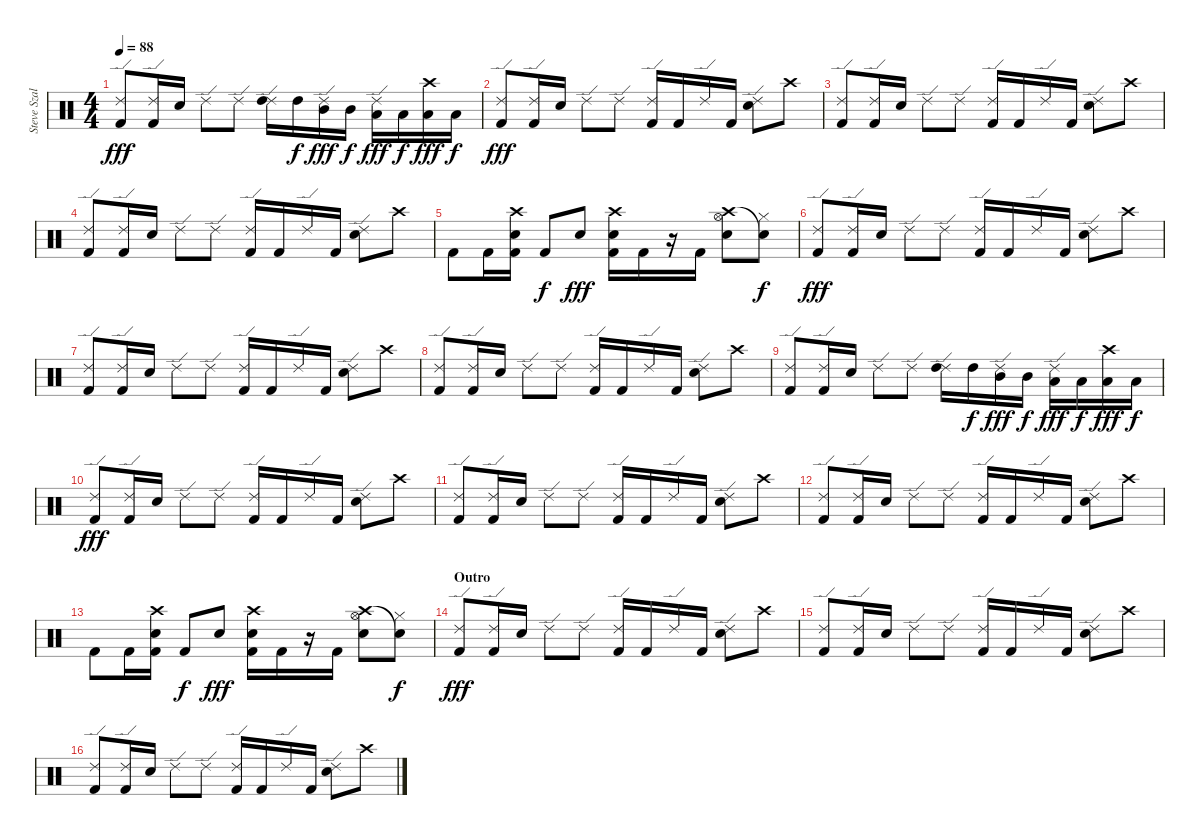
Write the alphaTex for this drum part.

\track ("Steve Szalay " "Steve Szal") {instrument percussion}
\staff {score}
\articulation defaults
\ts (4 4)
\tempo 88
\clef neutral
\ks c
("Ride (edge) 2" "Kick (hit) 2").8{dy fff} ("Ride (edge) 2" "Kick (hit) 2").16 "Electric Snare (hit)".16 "Ride (edge) 2".8 "Ride (edge) 2".8 ("Ride (edge) 2" "High Tom (hit)").16 "High Tom (hit)".16{dy f} ("Ride (edge) 2" "Mid Tom (hit)").16{dy fff} "Mid Tom (hit)".16{dy f} ("Ride (edge) 2" "Low Floor Tom (hit)").16{dy fff} "Low Floor Tom (hit)".16{dy f} ("Crash high (hit)" "Low Floor Tom (hit)").16{dy fff} "Low Floor Tom (hit)".16{dy f} |
("Ride (edge) 2" "Kick (hit) 2").8{dy fff} ("Ride (edge) 2" "Kick (hit) 2").16 "Electric Snare (hit)".16 "Ride (edge) 2".8 "Ride (edge) 2".8 ("Ride (edge) 2" "Kick (hit) 2").16 "Kick (hit) 2".16 "Ride (edge) 2".16 "Kick (hit) 2".16 ("Ride (edge) 2" "Electric Snare (hit)").8 "Crash high (hit)".8 |
("Ride (edge) 2" "Kick (hit) 2").8 ("Ride (edge) 2" "Kick (hit) 2").16 "Electric Snare (hit)".16 "Ride (edge) 2".8 "Ride (edge) 2".8 ("Ride (edge) 2" "Kick (hit) 2").16 "Kick (hit) 2".16 "Ride (edge) 2".16 "Kick (hit) 2".16 ("Ride (edge) 2" "Electric Snare (hit)").8 "Crash high (hit)".8 |
("Ride (edge) 2" "Kick (hit) 2").8 ("Ride (edge) 2" "Kick (hit) 2").16 "Electric Snare (hit)".16 "Ride (edge) 2".8 "Ride (edge) 2".8 ("Ride (edge) 2" "Kick (hit) 2").16 "Kick (hit) 2".16 "Ride (edge) 2".16 "Kick (hit) 2".16 ("Ride (edge) 2" "Electric Snare (hit)").8 "Crash high (hit)".8 |
"Kick (hit) 2".8 "Kick (hit) 2".16 ("Crash high (hit)" "Electric Snare (hit)" "Kick (hit) 2").16 "Kick (hit) 2".8{dy f} "Electric Snare (hit)".8{dy fff} ("Crash high (hit)" "Electric Snare (hit)" "Kick (hit) 2").16 "Kick (hit) 2".16 r.16 "Kick (hit) 2".16 ("Crash high (hit)" "Hi-Hat (open)" "Electric Snare (hit)").8 ("Snare (hit)"{t} "Hi-Hat (closed)").8{dy f} |
("Ride (edge) 2" "Kick (hit) 2").8{dy fff} ("Ride (edge) 2" "Kick (hit) 2").16 "Electric Snare (hit)".16 "Ride (edge) 2".8 "Ride (edge) 2".8 ("Ride (edge) 2" "Kick (hit) 2").16 "Kick (hit) 2".16 "Ride (edge) 2".16 "Kick (hit) 2".16 ("Ride (edge) 2" "Electric Snare (hit)").8 "Crash high (hit)".8 |
("Ride (edge) 2" "Kick (hit) 2").8 ("Ride (edge) 2" "Kick (hit) 2").16 "Electric Snare (hit)".16 "Ride (edge) 2".8 "Ride (edge) 2".8 ("Ride (edge) 2" "Kick (hit) 2").16 "Kick (hit) 2".16 "Ride (edge) 2".16 "Kick (hit) 2".16 ("Ride (edge) 2" "Electric Snare (hit)").8 "Crash high (hit)".8 |
("Ride (edge) 2" "Kick (hit) 2").8 ("Ride (edge) 2" "Kick (hit) 2").16 "Electric Snare (hit)".16 "Ride (edge) 2".8 "Ride (edge) 2".8 ("Ride (edge) 2" "Kick (hit) 2").16 "Kick (hit) 2".16 "Ride (edge) 2".16 "Kick (hit) 2".16 ("Ride (edge) 2" "Electric Snare (hit)").8 "Crash high (hit)".8 |
("Ride (edge) 2" "Kick (hit) 2").8 ("Ride (edge) 2" "Kick (hit) 2").16 "Electric Snare (hit)".16 "Ride (edge) 2".8 "Ride (edge) 2".8 ("Ride (edge) 2" "High Tom (hit)").16 "High Tom (hit)".16{dy f} ("Ride (edge) 2" "Mid Tom (hit)").16{dy fff} "Mid Tom (hit)".16{dy f} ("Ride (edge) 2" "Low Floor Tom (hit)").16{dy fff} "Low Floor Tom (hit)".16{dy f} ("Crash high (hit)" "Low Floor Tom (hit)").16{dy fff} "Low Floor Tom (hit)".16{dy f} |
("Ride (edge) 2" "Kick (hit) 2").8{dy fff} ("Ride (edge) 2" "Kick (hit) 2").16 "Electric Snare (hit)".16 "Ride (edge) 2".8 "Ride (edge) 2".8 ("Ride (edge) 2" "Kick (hit) 2").16 "Kick (hit) 2".16 "Ride (edge) 2".16 "Kick (hit) 2".16 ("Ride (edge) 2" "Electric Snare (hit)").8 "Crash high (hit)".8 |
("Ride (edge) 2" "Kick (hit) 2").8 ("Ride (edge) 2" "Kick (hit) 2").16 "Electric Snare (hit)".16 "Ride (edge) 2".8 "Ride (edge) 2".8 ("Ride (edge) 2" "Kick (hit) 2").16 "Kick (hit) 2".16 "Ride (edge) 2".16 "Kick (hit) 2".16 ("Ride (edge) 2" "Electric Snare (hit)").8 "Crash high (hit)".8 |
("Ride (edge) 2" "Kick (hit) 2").8 ("Ride (edge) 2" "Kick (hit) 2").16 "Electric Snare (hit)".16 "Ride (edge) 2".8 "Ride (edge) 2".8 ("Ride (edge) 2" "Kick (hit) 2").16 "Kick (hit) 2".16 "Ride (edge) 2".16 "Kick (hit) 2".16 ("Ride (edge) 2" "Electric Snare (hit)").8 "Crash high (hit)".8 |
"Kick (hit) 2".8 "Kick (hit) 2".16 ("Crash high (hit)" "Electric Snare (hit)" "Kick (hit) 2").16 "Kick (hit) 2".8{dy f} "Electric Snare (hit)".8{dy fff} ("Crash high (hit)" "Electric Snare (hit)" "Kick (hit) 2").16 "Kick (hit) 2".16 r.16 "Kick (hit) 2".16 ("Crash high (hit)" "Hi-Hat (open)" "Electric Snare (hit)").8 ("Snare (hit)"{t} "Hi-Hat (closed)").8{dy f} |
\section ("" "Outro")
("Ride (edge) 2" "Kick (hit) 2").8{dy fff} ("Ride (edge) 2" "Kick (hit) 2").16 "Electric Snare (hit)".16 "Ride (edge) 2".8 "Ride (edge) 2".8 ("Ride (edge) 2" "Kick (hit) 2").16 "Kick (hit) 2".16 "Ride (edge) 2".16 "Kick (hit) 2".16 ("Ride (edge) 2" "Electric Snare (hit)").8 "Crash high (hit)".8 |
("Ride (edge) 2" "Kick (hit) 2").8 ("Ride (edge) 2" "Kick (hit) 2").16 "Electric Snare (hit)".16 "Ride (edge) 2".8 "Ride (edge) 2".8 ("Ride (edge) 2" "Kick (hit) 2").16 "Kick (hit) 2".16 "Ride (edge) 2".16 "Kick (hit) 2".16 ("Ride (edge) 2" "Electric Snare (hit)").8 "Crash high (hit)".8 |
("Ride (edge) 2" "Kick (hit) 2").8 ("Ride (edge) 2" "Kick (hit) 2").16 "Electric Snare (hit)".16 "Ride (edge) 2".8 "Ride (edge) 2".8 ("Ride (edge) 2" "Kick (hit) 2").16 "Kick (hit) 2".16 "Ride (edge) 2".16 "Kick (hit) 2".16 ("Ride (edge) 2" "Electric Snare (hit)").8 "Crash high (hit)".8
